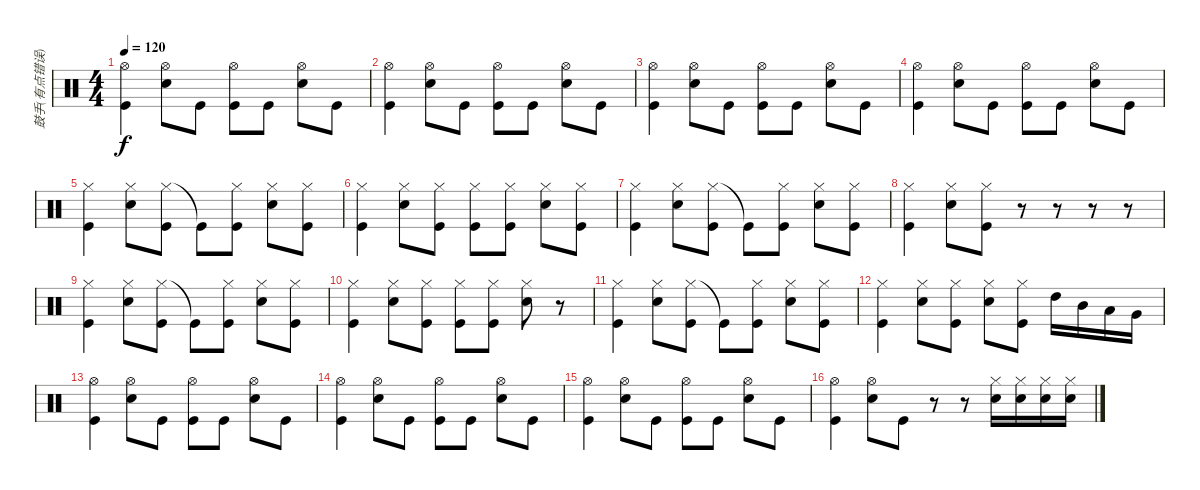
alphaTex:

\track ("鼓手(有点错误)" "鼓手(有点错误)") {instrument percussion}
\staff {score}
\articulation defaults
\ts (4 4)
\tempo 120
\clef neutral
\ks c
("Hi-Hat (open)" "Kick (hit)").4{dy f} ("Hi-Hat (open)" "Electric Snare (hit)").8 "Kick (hit)".8 ("Hi-Hat (open)" "Kick (hit)").8 "Kick (hit)".8 ("Hi-Hat (open)" "Electric Snare (hit)").8 "Kick (hit)".8 |
("Hi-Hat (open)" "Kick (hit)").4 ("Hi-Hat (open)" "Electric Snare (hit)").8 "Kick (hit)".8 ("Hi-Hat (open)" "Kick (hit)").8 "Kick (hit)".8 ("Hi-Hat (open)" "Electric Snare (hit)").8 "Kick (hit)".8 |
("Hi-Hat (open)" "Kick (hit)").4 ("Hi-Hat (open)" "Electric Snare (hit)").8 "Kick (hit)".8 ("Hi-Hat (open)" "Kick (hit)").8 "Kick (hit)".8 ("Hi-Hat (open)" "Electric Snare (hit)").8 "Kick (hit)".8 |
("Hi-Hat (open)" "Kick (hit)").4 ("Hi-Hat (open)" "Electric Snare (hit)").8 "Kick (hit)".8 ("Hi-Hat (open)" "Kick (hit)").8 "Kick (hit)".8 ("Hi-Hat (open)" "Electric Snare (hit)").8 "Kick (hit)".8 |
("Hi-Hat (closed)" "Kick (hit)").4 ("Hi-Hat (closed)" "Electric Snare (hit)").8 ("Hi-Hat (closed)" "Kick (hit)").8 "Kick (hit)"{t}.8 ("Hi-Hat (closed)" "Kick (hit)").8 ("Hi-Hat (closed)" "Electric Snare (hit)").8 ("Hi-Hat (closed)" "Kick (hit)").8 |
("Hi-Hat (closed)" "Kick (hit)").4 ("Hi-Hat (closed)" "Electric Snare (hit)").8 ("Hi-Hat (closed)" "Kick (hit)").8 ("Hi-Hat (closed)" "Kick (hit)").8 ("Hi-Hat (closed)" "Kick (hit)").8 ("Hi-Hat (closed)" "Electric Snare (hit)").8 ("Hi-Hat (closed)" "Kick (hit)").8 |
("Hi-Hat (closed)" "Kick (hit)").4 ("Hi-Hat (closed)" "Electric Snare (hit)").8 ("Hi-Hat (closed)" "Kick (hit)").8 "Kick (hit)"{t}.8 ("Hi-Hat (closed)" "Kick (hit)").8 ("Hi-Hat (closed)" "Electric Snare (hit)").8 ("Hi-Hat (closed)" "Kick (hit)").8 |
("Hi-Hat (closed)" "Kick (hit)").4 ("Hi-Hat (closed)" "Electric Snare (hit)").8 ("Hi-Hat (closed)" "Kick (hit)").8 r.8 r.8 r.8 r.8 |
("Hi-Hat (closed)" "Kick (hit)").4 ("Hi-Hat (closed)" "Electric Snare (hit)").8 ("Hi-Hat (closed)" "Kick (hit)").8 "Kick (hit)"{t}.8 ("Hi-Hat (closed)" "Kick (hit)").8 ("Hi-Hat (closed)" "Electric Snare (hit)").8 ("Hi-Hat (closed)" "Kick (hit)").8 |
("Hi-Hat (closed)" "Kick (hit)").4 ("Hi-Hat (closed)" "Electric Snare (hit)").8 ("Hi-Hat (closed)" "Kick (hit)").8 ("Hi-Hat (closed)" "Kick (hit)").8 ("Hi-Hat (closed)" "Kick (hit)").8 ("Hi-Hat (closed)" "Electric Snare (hit)").8 r.8 |
("Hi-Hat (closed)" "Kick (hit)").4 ("Hi-Hat (closed)" "Electric Snare (hit)").8 ("Hi-Hat (closed)" "Kick (hit)").8 "Kick (hit)"{t}.8 ("Hi-Hat (closed)" "Kick (hit)").8 ("Hi-Hat (closed)" "Electric Snare (hit)").8 ("Hi-Hat (closed)" "Kick (hit)").8 |
("Hi-Hat (closed)" "Kick (hit)").4 ("Hi-Hat (closed)" "Electric Snare (hit)").8 ("Hi-Hat (closed)" "Kick (hit)").8 ("Hi-Hat (closed)" "Electric Snare (hit)").8 ("Hi-Hat (closed)" "Kick (hit)").8 "High Tom (hit)".16 "Mid Tom (hit)".16 "Low Tom (hit)".16 "Very Low Tom (hit)".16 |
("Hi-Hat (open)" "Kick (hit)").4 ("Hi-Hat (open)" "Electric Snare (hit)").8 "Kick (hit)".8 ("Hi-Hat (open)" "Kick (hit)").8 "Kick (hit)".8 ("Hi-Hat (open)" "Electric Snare (hit)").8 "Kick (hit)".8 |
("Hi-Hat (open)" "Kick (hit)").4 ("Hi-Hat (open)" "Electric Snare (hit)").8 "Kick (hit)".8 ("Hi-Hat (open)" "Kick (hit)").8 "Kick (hit)".8 ("Hi-Hat (open)" "Electric Snare (hit)").8 "Kick (hit)".8 |
("Hi-Hat (open)" "Kick (hit)").4 ("Hi-Hat (open)" "Electric Snare (hit)").8 "Kick (hit)".8 ("Hi-Hat (open)" "Kick (hit)").8 "Kick (hit)".8 ("Hi-Hat (open)" "Electric Snare (hit)").8 "Kick (hit)".8 |
("Hi-Hat (open)" "Kick (hit)").4 ("Hi-Hat (open)" "Electric Snare (hit)").8 "Kick (hit)".8 r.8 r.8 ("Hi-Hat (closed)" "Electric Snare (hit)").16 ("Hi-Hat (closed)" "Electric Snare (hit)").16 ("Hi-Hat (closed)" "Electric Snare (hit)").16 ("Hi-Hat (closed)" "Electric Snare (hit)").16
